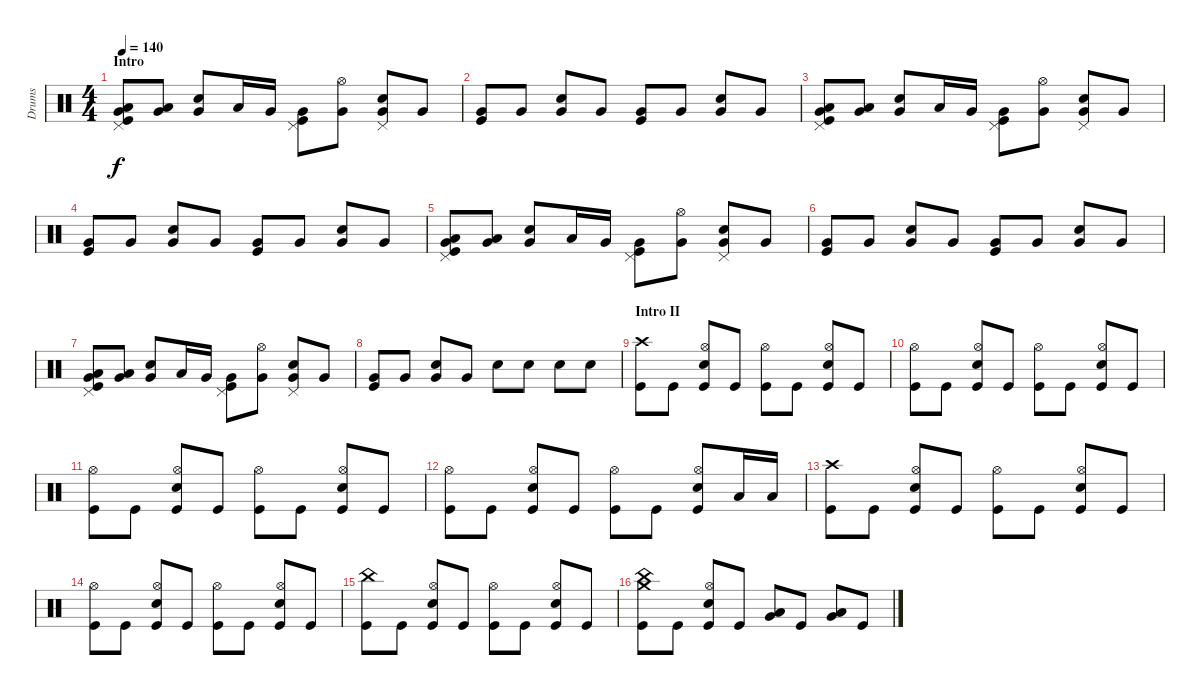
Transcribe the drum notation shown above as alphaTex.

\track ("Drums" "Drums") {instrument percussion}
\staff {score}
\articulation defaults
\ts (4 4)
\section ("" "Intro")
\tempo 140
\clef neutral
\ks c
("Pedal Hi-Hat (hit)" "Very Low Tom (hit)" "Low Tom (hit)" "Kick (hit)").8{dy f} ("Very Low Tom (hit)" "Low Tom (hit)").8 ("Very Low Tom (hit)" "Electric Snare (hit)").8 "Low Tom (hit)".16 "Very Low Tom (hit)".16 ("Pedal Hi-Hat (hit)" "Very Low Tom (hit)" "Kick (hit)").8 ("Hi-Hat (open)" "Very Low Tom (hit)").8 ("Pedal Hi-Hat (hit)" "Very Low Tom (hit)" "Electric Snare (hit)").8 "Very Low Tom (hit)".8 |
("Very Low Tom (hit)" "Kick (hit)").8 "Very Low Tom (hit)".8 ("Very Low Tom (hit)" "Snare (hit) 2").8 "Very Low Tom (hit)".8 ("Very Low Tom (hit)" "Kick (hit)").8 "Very Low Tom (hit)".8 ("Very Low Tom (hit)" "Snare (hit) 2").8 "Very Low Tom (hit)".8 |
("Pedal Hi-Hat (hit)" "Very Low Tom (hit)" "Low Tom (hit)" "Kick (hit)").8 ("Very Low Tom (hit)" "Low Tom (hit)").8 ("Very Low Tom (hit)" "Electric Snare (hit)").8 "Low Tom (hit)".16 "Very Low Tom (hit)".16 ("Pedal Hi-Hat (hit)" "Very Low Tom (hit)" "Kick (hit)").8 ("Hi-Hat (open)" "Very Low Tom (hit)").8 ("Pedal Hi-Hat (hit)" "Very Low Tom (hit)" "Electric Snare (hit)").8 "Very Low Tom (hit)".8 |
("Very Low Tom (hit)" "Kick (hit)").8 "Very Low Tom (hit)".8 ("Very Low Tom (hit)" "Snare (hit) 2").8 "Very Low Tom (hit)".8 ("Very Low Tom (hit)" "Kick (hit)").8 "Very Low Tom (hit)".8 ("Very Low Tom (hit)" "Snare (hit) 2").8 "Very Low Tom (hit)".8 |
("Pedal Hi-Hat (hit)" "Very Low Tom (hit)" "Low Tom (hit)" "Kick (hit)").8 ("Very Low Tom (hit)" "Low Tom (hit)").8 ("Very Low Tom (hit)" "Electric Snare (hit)").8 "Low Tom (hit)".16 "Very Low Tom (hit)".16 ("Pedal Hi-Hat (hit)" "Very Low Tom (hit)" "Kick (hit)").8 ("Hi-Hat (open)" "Very Low Tom (hit)").8 ("Pedal Hi-Hat (hit)" "Very Low Tom (hit)" "Electric Snare (hit)").8 "Very Low Tom (hit)".8 |
("Very Low Tom (hit)" "Kick (hit)").8 "Very Low Tom (hit)".8 ("Very Low Tom (hit)" "Snare (hit) 2").8 "Very Low Tom (hit)".8 ("Very Low Tom (hit)" "Kick (hit)").8 "Very Low Tom (hit)".8 ("Very Low Tom (hit)" "Snare (hit) 2").8 "Very Low Tom (hit)".8 |
("Pedal Hi-Hat (hit)" "Very Low Tom (hit)" "Low Tom (hit)" "Kick (hit)").8 ("Very Low Tom (hit)" "Low Tom (hit)").8 ("Very Low Tom (hit)" "Electric Snare (hit)").8 "Low Tom (hit)".16 "Very Low Tom (hit)".16 ("Pedal Hi-Hat (hit)" "Very Low Tom (hit)" "Kick (hit)").8 ("Hi-Hat (open)" "Very Low Tom (hit)").8 ("Pedal Hi-Hat (hit)" "Very Low Tom (hit)" "Electric Snare (hit)").8 "Very Low Tom (hit)".8 |
("Very Low Tom (hit)" "Kick (hit)").8 "Very Low Tom (hit)".8 ("Very Low Tom (hit)" "Snare (hit) 2").8 "Very Low Tom (hit)".8 "Snare (hit) 2".8 "Snare (hit) 2".8 "Snare (hit) 2".8 "Snare (hit) 2".8 |
\section ("" "Intro II")
("Crash high (hit)" "Kick (hit)").8 "Kick (hit)".8 ("Hi-Hat (open)" "Snare (hit) 2" "Kick (hit)").8 "Kick (hit)".8 ("Hi-Hat (open)" "Kick (hit)").8 "Kick (hit)".8 ("Hi-Hat (open)" "Snare (hit) 2" "Kick (hit)").8 "Kick (hit)".8 |
("Hi-Hat (open)" "Kick (hit)").8 "Kick (hit)".8 ("Hi-Hat (open)" "Snare (hit) 2" "Kick (hit)").8 "Kick (hit)".8 ("Hi-Hat (open)" "Kick (hit)").8 "Kick (hit)".8 ("Hi-Hat (open)" "Snare (hit) 2" "Kick (hit)").8 "Kick (hit)".8 |
("Hi-Hat (open)" "Kick (hit)").8 "Kick (hit)".8 ("Hi-Hat (open)" "Snare (hit) 2" "Kick (hit)").8 "Kick (hit)".8 ("Hi-Hat (open)" "Kick (hit)").8 "Kick (hit)".8 ("Hi-Hat (open)" "Snare (hit) 2" "Kick (hit)").8 "Kick (hit)".8 |
("Hi-Hat (open)" "Kick (hit)").8 "Kick (hit)".8 ("Hi-Hat (open)" "Snare (hit) 2" "Kick (hit)").8 "Kick (hit)".8 ("Hi-Hat (open)" "Kick (hit)").8 "Kick (hit)".8 ("Hi-Hat (open)" "Snare (hit) 2" "Kick (hit)").8 "Low Tom (hit)".16 "Low Tom (hit)".16 |
("Crash high (hit)" "Kick (hit)").8 "Kick (hit)".8 ("Hi-Hat (open)" "Snare (hit) 2" "Kick (hit)").8 "Kick (hit)".8 ("Hi-Hat (open)" "Kick (hit)").8 "Kick (hit)".8 ("Hi-Hat (open)" "Snare (hit) 2" "Kick (hit)").8 "Kick (hit)".8 |
("Hi-Hat (open)" "Kick (hit)").8 "Kick (hit)".8 ("Hi-Hat (open)" "Snare (hit) 2" "Kick (hit)").8 "Kick (hit)".8 ("Hi-Hat (open)" "Kick (hit)").8 "Kick (hit)".8 ("Hi-Hat (open)" "Snare (hit) 2" "Kick (hit)").8 "Kick (hit)".8 |
("China (hit)" "Kick (hit)").8 "Kick (hit)".8 ("Hi-Hat (open)" "Snare (hit) 2" "Kick (hit)").8 "Kick (hit)".8 ("Hi-Hat (open)" "Kick (hit)").8 "Kick (hit)".8 ("Hi-Hat (open)" "Snare (hit) 2" "Kick (hit)").8 "Kick (hit)".8 |
("China (hit)" "Crash medium (hit)" "Kick (hit)").8 "Kick (hit)".8 ("Hi-Hat (open)" "Snare (hit) 2" "Kick (hit)").8 "Kick (hit)".8 ("Very Low Tom (hit)" "Low Tom (hit)").8 "Kick (hit)".8 ("Very Low Tom (hit)" "Low Floor Tom (hit)").8 "Kick (hit)".8
